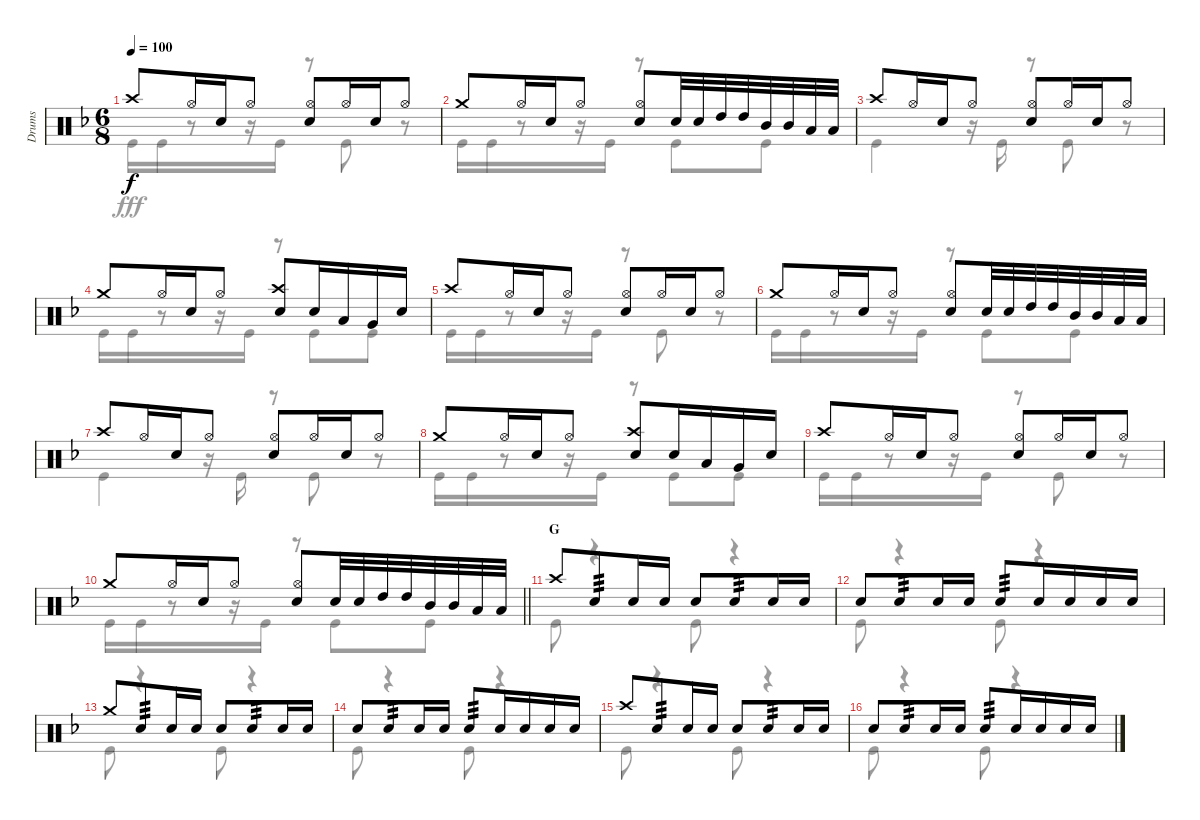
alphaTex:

\track ("Drums" "Drums") {instrument percussion}
\staff {score}
\articulation defaults
\voice
\ts (6 8)
\tempo 100
\clef neutral
\ks f "Crash high (hit)".8{dy f} "Hi-Hat (open)".16 "Snare (hit) 2".16 "Hi-Hat (open)".8
("Hi-Hat (open)" "Snare (hit) 2").8 "Hi-Hat (open)".16 "Snare (hit) 2".16 "Hi-Hat (open)".8 |
"Crash medium (hit)".8 "Hi-Hat (open)".16 "Snare (hit) 2".16 "Hi-Hat (open)".8 ("Hi-Hat (open)" "Snare (hit) 2").8 "Snare (hit) 2".32 "Snare (hit) 2".32 "High Tom (hit)".32 "High Tom (hit)".32 "Mid Tom (hit)".32 "Mid Tom (hit)".32 "Low Tom (hit)".32 "Low Tom (hit)".32 |
"Crash high (hit)".8 "Hi-Hat (open)".16 "Snare (hit) 2".16 "Hi-Hat (open)".8 ("Hi-Hat (open)" "Snare (hit) 2").8 "Hi-Hat (open)".16 "Snare (hit) 2".16 "Hi-Hat (open)".8 |
"Crash medium (hit)".8 "Hi-Hat (open)".16 "Snare (hit) 2".16 "Hi-Hat (open)".8 ("Crash high (hit)" "Snare (hit) 2").8 "Snare (hit) 2".16 "Low Tom (hit)".16 "Very Low Tom (hit)".16 "Snare (hit) 2".16 |
"Crash high (hit)".8 "Hi-Hat (open)".16 "Snare (hit) 2".16 "Hi-Hat (open)".8 ("Hi-Hat (open)" "Snare (hit) 2").8 "Hi-Hat (open)".16 "Snare (hit) 2".16 "Hi-Hat (open)".8 |
"Crash medium (hit)".8 "Hi-Hat (open)".16 "Snare (hit) 2".16 "Hi-Hat (open)".8 ("Hi-Hat (open)" "Snare (hit) 2").8 "Snare (hit) 2".32 "Snare (hit) 2".32 "High Tom (hit)".32 "High Tom (hit)".32 "Mid Tom (hit)".32 "Mid Tom (hit)".32 "Low Tom (hit)".32 "Low Tom (hit)".32 |
"Crash high (hit)".8 "Hi-Hat (open)".16 "Snare (hit) 2".16 "Hi-Hat (open)".8 ("Hi-Hat (open)" "Snare (hit) 2").8 "Hi-Hat (open)".16 "Snare (hit) 2".16 "Hi-Hat (open)".8 |
"Crash medium (hit)".8 "Hi-Hat (open)".16 "Snare (hit) 2".16 "Hi-Hat (open)".8 ("Crash high (hit)" "Snare (hit) 2").8 "Snare (hit) 2".16 "Low Tom (hit)".16 "Very Low Tom (hit)".16 "Snare (hit) 2".16 |
"Crash high (hit)".8 "Hi-Hat (open)".16 "Snare (hit) 2".16 "Hi-Hat (open)".8 ("Hi-Hat (open)" "Snare (hit) 2").8 "Hi-Hat (open)".16 "Snare (hit) 2".16 "Hi-Hat (open)".8 |
\barLineRight lightlight "Crash medium (hit)".8 "Hi-Hat (open)".16 "Snare (hit) 2".16 "Hi-Hat (open)".8
("Hi-Hat (open)" "Snare (hit) 2").8 "Snare (hit) 2".32 "Snare (hit) 2".32 "High Tom (hit)".32 "High Tom (hit)".32 "Mid Tom (hit)".32 "Mid Tom (hit)".32 "Low Tom (hit)".32 "Low Tom (hit)".32 |
\section ("" "G")
"Crash high (hit)".8 "Snare (hit) 2".8{tp 3} "Snare (hit) 2".16 "Snare (hit) 2".16 "Snare (hit) 2".8 "Snare (hit) 2".8{tp 3} "Snare (hit) 2".16 "Snare (hit) 2".16 |
"Snare (hit) 2".8 "Snare (hit) 2".8{tp 3} "Snare (hit) 2".16 "Snare (hit) 2".16 "Snare (hit) 2".8{tp 3} "Snare (hit) 2".16 "Snare (hit) 2".16 "Snare (hit) 2".16 "Snare (hit) 2".16 |
"Crash medium (hit)".8 "Snare (hit) 2".8{tp 3} "Snare (hit) 2".16 "Snare (hit) 2".16 "Snare (hit) 2".8 "Snare (hit) 2".8{tp 3} "Snare (hit) 2".16 "Snare (hit) 2".16 |
"Snare (hit) 2".8 "Snare (hit) 2".8{tp 3} "Snare (hit) 2".16 "Snare (hit) 2".16 "Snare (hit) 2".8{tp 3} "Snare (hit) 2".16 "Snare (hit) 2".16 "Snare (hit) 2".16 "Snare (hit) 2".16 |
"Crash high (hit)".8 "Snare (hit) 2".8{tp 3} "Snare (hit) 2".16 "Snare (hit) 2".16 "Snare (hit) 2".8 "Snare (hit) 2".8{tp 3} "Snare (hit) 2".16 "Snare (hit) 2".16 |
"Snare (hit) 2".8 "Snare (hit) 2".8{tp 3} "Snare (hit) 2".16 "Snare (hit) 2".16 "Snare (hit) 2".8{tp 3} "Snare (hit) 2".16 "Snare (hit) 2".16 "Snare (hit) 2".16 "Snare (hit) 2".16
\voice
\clef neutral
\ottava regular
\simile none
\ks f "Kick (hit)".16{dy fff} "Kick (hit)".16
r.8 r.16 "Kick (hit)".16 r.8 "Kick (hit)".8 r.8 |
"Kick (hit)".16 "Kick (hit)".16 r.8 r.16 "Kick (hit)".16 r.8 "Kick (hit)".8 "Kick (hit)".8 |
"Kick (hit)".4 r.16 "Kick (hit)".16 r.8 "Kick (hit)".8 r.8 |
"Kick (hit)".16 "Kick (hit)".16 r.8 r.16 "Kick (hit)".16 r.8 "Kick (hit)".8 "Kick (hit)".8 |
"Kick (hit)".16 "Kick (hit)".16 r.8 r.16 "Kick (hit)".16 r.8 "Kick (hit)".8 r.8 |
"Kick (hit)".16 "Kick (hit)".16 r.8 r.16 "Kick (hit)".16 r.8 "Kick (hit)".8 "Kick (hit)".8 |
"Kick (hit)".4 r.16 "Kick (hit)".16 r.8 "Kick (hit)".8 r.8 |
"Kick (hit)".16 "Kick (hit)".16 r.8 r.16 "Kick (hit)".16 r.8 "Kick (hit)".8 "Kick (hit)".8 |
"Kick (hit)".16 "Kick (hit)".16 r.8 r.16 "Kick (hit)".16 r.8 "Kick (hit)".8 r.8 |
\barLineRight lightlight "Kick (hit)".16 "Kick (hit)".16
r.8 r.16 "Kick (hit)".16 r.8 "Kick (hit)".8 "Kick (hit)".8 |
"Kick (hit)".8 r.4 "Kick (hit)".8 r.4 |
"Kick (hit)".8 r.4 "Kick (hit)".8 r.4 |
"Kick (hit)".8 r.4 "Kick (hit)".8 r.4 |
"Kick (hit)".8 r.4 "Kick (hit)".8 r.4 |
"Kick (hit)".8 r.4 "Kick (hit)".8 r.4 |
"Kick (hit)".8 r.4 "Kick (hit)".8 r.4
